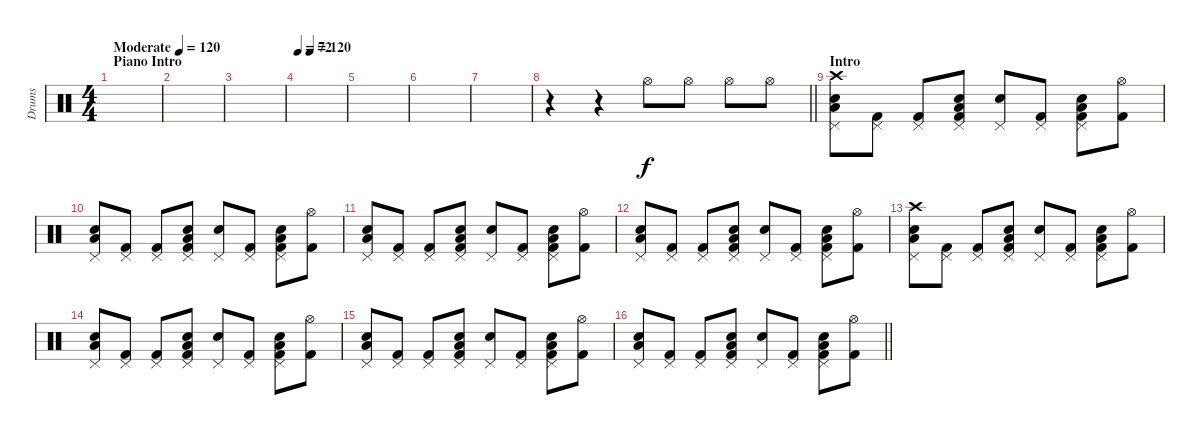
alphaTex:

\track ("Drums" "Drums") {instrument percussion}
\staff {score}
\articulation defaults
\ts (4 4)
\section ("" "Piano Intro")
\tempo (120 "Moderate")
\clef neutral
\ks c
|
|
|
\tempo 72
\tempo (120 0.25)
|
|
|
|
\barLineRight lightlight
r.4 r.4 "Hi-Hat (open)".8 "Hi-Hat (open)".8 "Hi-Hat (open)".8 "Hi-Hat (open)".8 |
\section ("" "Intro")
("Electric Snare (hit)" "Low Tom (hit)" "Pedal Hi-Hat (hit)" "Crash high (hit)").8 ("Kick (hit) 2" "Pedal Hi-Hat (hit)").8 ("Kick (hit) 2" "Pedal Hi-Hat (hit)").8 ("Kick (hit) 2" "Electric Snare (hit)" "Low Tom (hit)" "Pedal Hi-Hat (hit)").8 ("Electric Snare (hit)" "Pedal Hi-Hat (hit)").8 ("Kick (hit) 2" "Pedal Hi-Hat (hit)").8 ("Kick (hit) 2" "Electric Snare (hit)" "Low Tom (hit)" "Pedal Hi-Hat (hit)").8 ("Kick (hit) 2" "Hi-Hat (open)").8 |
("Electric Snare (hit)" "Low Tom (hit)" "Pedal Hi-Hat (hit)").8 ("Kick (hit) 2" "Pedal Hi-Hat (hit)").8 ("Kick (hit) 2" "Pedal Hi-Hat (hit)").8 ("Kick (hit) 2" "Electric Snare (hit)" "Low Tom (hit)" "Pedal Hi-Hat (hit)").8 ("Electric Snare (hit)" "Pedal Hi-Hat (hit)").8 ("Kick (hit) 2" "Pedal Hi-Hat (hit)").8 ("Kick (hit) 2" "Electric Snare (hit)" "Low Tom (hit)" "Pedal Hi-Hat (hit)").8 ("Kick (hit) 2" "Hi-Hat (open)").8 |
("Electric Snare (hit)" "Low Tom (hit)" "Pedal Hi-Hat (hit)").8 ("Kick (hit) 2" "Pedal Hi-Hat (hit)").8 ("Kick (hit) 2" "Pedal Hi-Hat (hit)").8 ("Kick (hit) 2" "Electric Snare (hit)" "Low Tom (hit)" "Pedal Hi-Hat (hit)").8 ("Electric Snare (hit)" "Pedal Hi-Hat (hit)").8 ("Kick (hit) 2" "Pedal Hi-Hat (hit)").8 ("Kick (hit) 2" "Electric Snare (hit)" "Low Tom (hit)" "Pedal Hi-Hat (hit)").8 ("Kick (hit) 2" "Hi-Hat (open)").8 |
("Electric Snare (hit)" "Low Tom (hit)" "Pedal Hi-Hat (hit)").8 ("Kick (hit) 2" "Pedal Hi-Hat (hit)").8 ("Kick (hit) 2" "Pedal Hi-Hat (hit)").8 ("Kick (hit) 2" "Electric Snare (hit)" "Low Tom (hit)" "Pedal Hi-Hat (hit)").8 ("Electric Snare (hit)" "Pedal Hi-Hat (hit)").8 ("Kick (hit) 2" "Pedal Hi-Hat (hit)").8 ("Kick (hit) 2" "Electric Snare (hit)" "Low Tom (hit)" "Pedal Hi-Hat (hit)").8 ("Kick (hit) 2" "Hi-Hat (open)").8 |
("Electric Snare (hit)" "Low Tom (hit)" "Pedal Hi-Hat (hit)" "Crash high (hit)").8 ("Kick (hit) 2" "Pedal Hi-Hat (hit)").8 ("Kick (hit) 2" "Pedal Hi-Hat (hit)").8 ("Kick (hit) 2" "Electric Snare (hit)" "Low Tom (hit)" "Pedal Hi-Hat (hit)").8 ("Electric Snare (hit)" "Pedal Hi-Hat (hit)").8 ("Kick (hit) 2" "Pedal Hi-Hat (hit)").8 ("Kick (hit) 2" "Electric Snare (hit)" "Low Tom (hit)" "Pedal Hi-Hat (hit)").8 ("Kick (hit) 2" "Hi-Hat (open)").8 |
("Electric Snare (hit)" "Low Tom (hit)" "Pedal Hi-Hat (hit)").8 ("Kick (hit) 2" "Pedal Hi-Hat (hit)").8 ("Kick (hit) 2" "Pedal Hi-Hat (hit)").8 ("Kick (hit) 2" "Electric Snare (hit)" "Low Tom (hit)" "Pedal Hi-Hat (hit)").8 ("Electric Snare (hit)" "Pedal Hi-Hat (hit)").8 ("Kick (hit) 2" "Pedal Hi-Hat (hit)").8 ("Kick (hit) 2" "Electric Snare (hit)" "Low Tom (hit)" "Pedal Hi-Hat (hit)").8 ("Kick (hit) 2" "Hi-Hat (open)").8 |
("Electric Snare (hit)" "Low Tom (hit)" "Pedal Hi-Hat (hit)").8 ("Kick (hit) 2" "Pedal Hi-Hat (hit)").8 ("Kick (hit) 2" "Pedal Hi-Hat (hit)").8 ("Kick (hit) 2" "Electric Snare (hit)" "Low Tom (hit)" "Pedal Hi-Hat (hit)").8 ("Electric Snare (hit)" "Pedal Hi-Hat (hit)").8 ("Kick (hit) 2" "Pedal Hi-Hat (hit)").8 ("Kick (hit) 2" "Electric Snare (hit)" "Low Tom (hit)" "Pedal Hi-Hat (hit)").8 ("Kick (hit) 2" "Hi-Hat (open)").8 |
\barLineRight lightlight
("Electric Snare (hit)" "Low Tom (hit)" "Pedal Hi-Hat (hit)").8 ("Kick (hit) 2" "Pedal Hi-Hat (hit)").8 ("Kick (hit) 2" "Pedal Hi-Hat (hit)").8 ("Kick (hit) 2" "Electric Snare (hit)" "Low Tom (hit)" "Pedal Hi-Hat (hit)").8 ("Electric Snare (hit)" "Pedal Hi-Hat (hit)").8 ("Kick (hit) 2" "Pedal Hi-Hat (hit)").8 ("Kick (hit) 2" "Electric Snare (hit)" "Low Tom (hit)" "Pedal Hi-Hat (hit)").8 ("Kick (hit) 2" "Hi-Hat (open)").8
